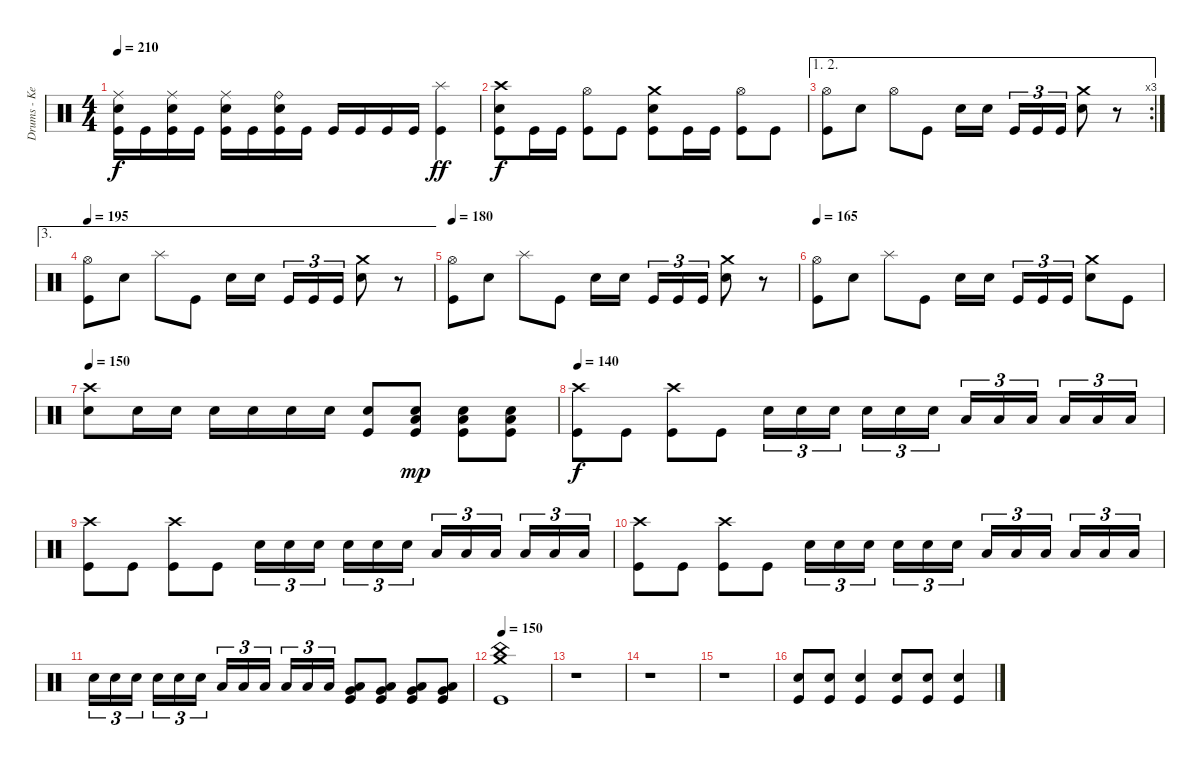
\track ("Drums - Kevin" "Drums - Ke") {instrument percussion}
\staff {score}
\articulation defaults
\ts (4 4)
\tempo 210
\clef neutral
\ks c
("Ride (middle)" "Electric Snare (hit)" "Kick (hit)").16{dy f} "Kick (hit)".16 ("Ride (middle)" "Electric Snare (hit)" "Kick (hit)").16 "Kick (hit)".16 ("Ride (middle)" "Electric Snare (hit)" "Kick (hit)").16 "Kick (hit)".16 ("Ride (bell)" "Electric Snare (hit)" "Kick (hit)").16 "Kick (hit)".16 "Kick (hit)".16 "Kick (hit)".16 "Kick (hit)".16 "Kick (hit)".16 ("Splash (hit)" "Kick (hit)").4{dy ff} |
("Crash high (hit)" "Electric Snare (hit)" "Kick (hit)").8{dy f} "Kick (hit)".16 "Kick (hit)".16 ("Hi-Hat (open)" "Kick (hit)").8 "Kick (hit)".8 ("Crash medium (hit)" "Electric Snare (hit)" "Kick (hit)").8 "Kick (hit)".16 "Kick (hit)".16 ("Hi-Hat (open)" "Kick (hit)").8 "Kick (hit)".8 |
\ae (1 2)
\rc 3
("Hi-Hat (open)" "Kick (hit)").8 "Electric Snare (hit)".8 "Hi-Hat (open)".8 "Kick (hit)".8 "Electric Snare (hit)".16 "Electric Snare (hit)".16 "Kick (hit)".16{tu (3 2)} "Kick (hit)".16{tu (3 2)} "Kick (hit)".16{tu (3 2)} ("Crash medium (hit)" "Electric Snare (hit)").8 r.8 |
\ae 3
\tempo 195
("Hi-Hat (open)" "Kick (hit)").8 "Electric Snare (hit)".8 "Splash (hit)".8 "Kick (hit)".8 "Electric Snare (hit)".16 "Electric Snare (hit)".16 "Kick (hit)".16{tu (3 2)} "Kick (hit)".16{tu (3 2)} "Kick (hit)".16{tu (3 2)} ("Crash medium (hit)" "Electric Snare (hit)").8 r.8 |
\tempo 180
("Hi-Hat (open)" "Kick (hit)").8 "Electric Snare (hit)".8 "Splash (hit)".8 "Kick (hit)".8 "Electric Snare (hit)".16 "Electric Snare (hit)".16 "Kick (hit)".16{tu (3 2)} "Kick (hit)".16{tu (3 2)} "Kick (hit)".16{tu (3 2)} ("Crash medium (hit)" "Electric Snare (hit)").8 r.8 |
\tempo 165
("Hi-Hat (open)" "Kick (hit)").8 "Electric Snare (hit)".8 "Splash (hit)".8 "Kick (hit)".8 "Electric Snare (hit)".16 "Electric Snare (hit)".16 "Kick (hit)".16{tu (3 2)} "Kick (hit)".16{tu (3 2)} "Kick (hit)".16{tu (3 2)} ("Crash medium (hit)" "Electric Snare (hit)").8 "Kick (hit)".8 |
\tempo 150
("Crash high (hit)" "Electric Snare (hit)").8 "Electric Snare (hit)".16 "Electric Snare (hit)".16 "Electric Snare (hit)".16 "Electric Snare (hit)".16 "Electric Snare (hit)".16 "Electric Snare (hit)".16 ("Electric Snare (hit)" "Kick (hit)").8 ("Low Tom (hit)" "Electric Snare (hit)" "Kick (hit)").8{dy mp} ("Low Tom (hit)" "Electric Snare (hit)" "Kick (hit)").8 ("Low Tom (hit)" "Electric Snare (hit)" "Kick (hit)").8 |
\tempo 140
("Crash high (hit)" "Kick (hit)").8{dy f} "Kick (hit)".8 ("Crash high (hit)" "Kick (hit)").8 "Kick (hit)".8 "Electric Snare (hit)".16{tu (3 2)} "Electric Snare (hit)".16{tu (3 2)} "Electric Snare (hit)".16{tu (3 2)} "Electric Snare (hit)".16{tu (3 2)} "Electric Snare (hit)".16{tu (3 2)} "Electric Snare (hit)".16{tu (3 2)} "Low Tom (hit)".16{tu (3 2)} "Low Tom (hit)".16{tu (3 2)} "Low Tom (hit)".16{tu (3 2)} "Low Tom (hit)".16{tu (3 2)} "Low Tom (hit)".16{tu (3 2)} "Low Tom (hit)".16{tu (3 2)} |
("Crash high (hit)" "Kick (hit)").8 "Kick (hit)".8 ("Crash high (hit)" "Kick (hit)").8 "Kick (hit)".8 "Electric Snare (hit)".16{tu (3 2)} "Electric Snare (hit)".16{tu (3 2)} "Electric Snare (hit)".16{tu (3 2)} "Electric Snare (hit)".16{tu (3 2)} "Electric Snare (hit)".16{tu (3 2)} "Electric Snare (hit)".16{tu (3 2)} "Low Tom (hit)".16{tu (3 2)} "Low Tom (hit)".16{tu (3 2)} "Low Tom (hit)".16{tu (3 2)} "Low Tom (hit)".16{tu (3 2)} "Low Tom (hit)".16{tu (3 2)} "Low Tom (hit)".16{tu (3 2)} |
("Crash high (hit)" "Kick (hit)").8 "Kick (hit)".8 ("Crash high (hit)" "Kick (hit)").8 "Kick (hit)".8 "Electric Snare (hit)".16{tu (3 2)} "Electric Snare (hit)".16{tu (3 2)} "Electric Snare (hit)".16{tu (3 2)} "Electric Snare (hit)".16{tu (3 2)} "Electric Snare (hit)".16{tu (3 2)} "Electric Snare (hit)".16{tu (3 2)} "Low Tom (hit)".16{tu (3 2)} "Low Tom (hit)".16{tu (3 2)} "Low Tom (hit)".16{tu (3 2)} "Low Tom (hit)".16{tu (3 2)} "Low Tom (hit)".16{tu (3 2)} "Low Tom (hit)".16{tu (3 2)} |
"Electric Snare (hit)".16{tu (3 2)} "Electric Snare (hit)".16{tu (3 2)} "Electric Snare (hit)".16{tu (3 2)} "Electric Snare (hit)".16{tu (3 2)} "Electric Snare (hit)".16{tu (3 2)} "Electric Snare (hit)".16{tu (3 2)} "Low Tom (hit)".16{tu (3 2)} "Low Tom (hit)".16{tu (3 2)} "Low Tom (hit)".16{tu (3 2)} "Low Tom (hit)".16{tu (3 2)} "Low Tom (hit)".16{tu (3 2)} "Low Tom (hit)".16{tu (3 2)} ("Very Low Tom (hit)" "Low Tom (hit)" "Kick (hit)").8 ("Very Low Tom (hit)" "Low Tom (hit)" "Kick (hit)").8 ("Very Low Tom (hit)" "Low Tom (hit)" "Kick (hit)").8 ("Very Low Tom (hit)" "Low Tom (hit)" "Kick (hit)").8 |
\tempo 150
("China (hit)" "Crash medium (hit)" "Kick (hit)").1 |
r.1 |
r.1 |
r.1 |
("Electric Snare (hit)" "Kick (hit)").8 ("Electric Snare (hit)" "Kick (hit)").8 ("Electric Snare (hit)" "Kick (hit)").4 ("Electric Snare (hit)" "Kick (hit)").8 ("Electric Snare (hit)" "Kick (hit)").8 ("Electric Snare (hit)" "Kick (hit)").4
